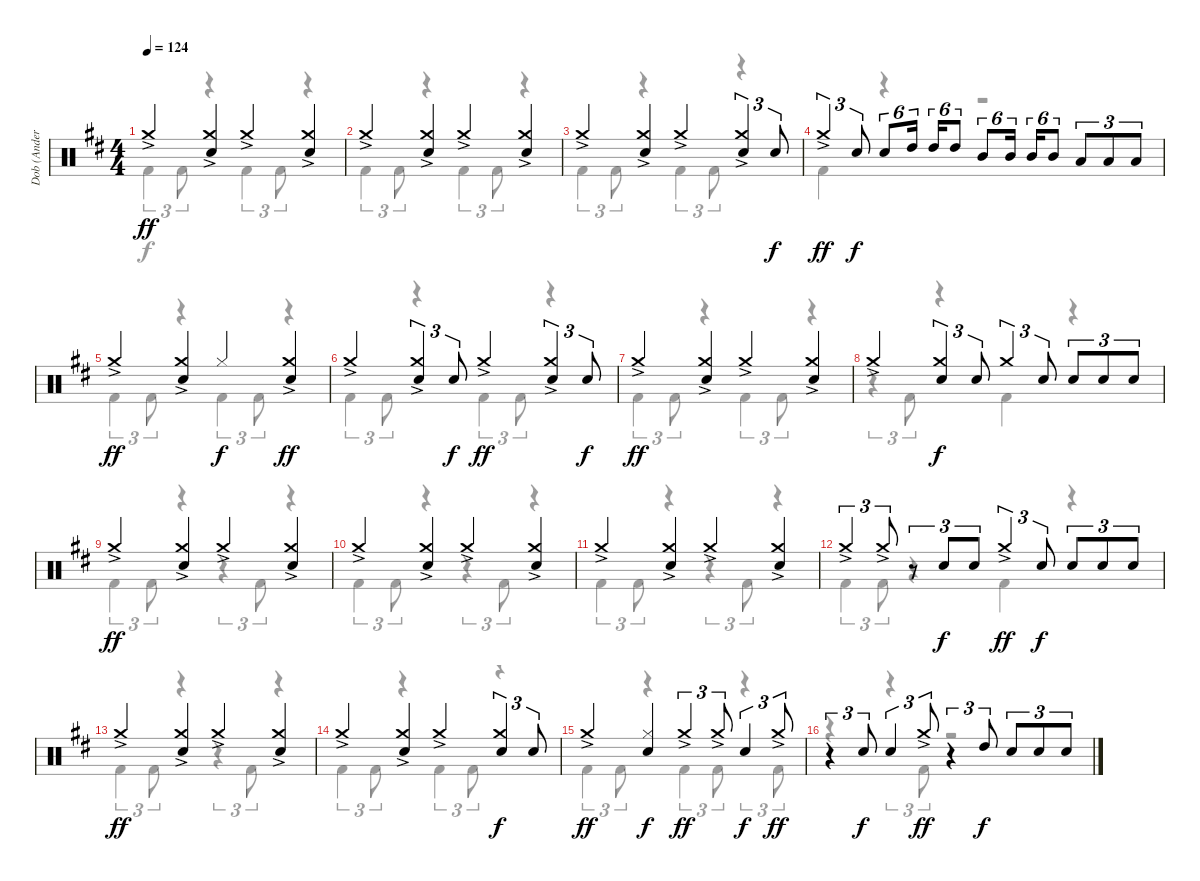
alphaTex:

\track ("Dob (Anders Johansson)" "Dob (Ander") {instrument percussion}
\staff {score}
\articulation defaults
\voice
\ts (4 4)
\tempo 124
\clef neutral
\ks d "Crash medium (hit)"{ac}.4{dy ff}
("Crash medium (hit)"{ac} "Electric Snare (hit)").4 "Crash medium (hit)"{ac}.4 ("Crash medium (hit)"{ac} "Electric Snare (hit)").4 |
"Crash medium (hit)"{ac}.4 ("Crash medium (hit)"{ac} "Electric Snare (hit)").4 "Crash medium (hit)"{ac}.4 ("Crash medium (hit)"{ac} "Electric Snare (hit)").4 |
"Crash medium (hit)"{ac}.4 ("Crash medium (hit)"{ac} "Electric Snare (hit)").4 "Crash medium (hit)"{ac}.4 ("Crash medium (hit)"{ac} "Electric Snare (hit)").4{tu (3 2)} "Electric Snare (hit)".8{tu (3 2) dy f} |
"Crash medium (hit)"{ac}.4{tu (3 2) dy ff} "Electric Snare (hit)".8{tu (3 2) dy f} "Electric Snare (hit)".8{tu (6 4)} "High Tom (hit)".16{tu (6 4)} "High Tom (hit)".16{tu (6 4)} "High Tom (hit)".8{tu (6 4)} "Mid Tom (hit)".8{tu (6 4)} "Mid Tom (hit)".16{tu (6 4)} "Mid Tom (hit)".16{tu (6 4)} "Mid Tom (hit)".8{tu (6 4)} "Low Tom (hit)".8{tu (3 2)} "Low Tom (hit)".8{tu (3 2)} "Low Tom (hit)".8{tu (3 2)} |
"Crash medium (hit)"{ac}.4{dy ff} ("Crash medium (hit)"{ac} "Electric Snare (hit)").4 "Hi-Hat (closed)".4{dy f} ("Crash medium (hit)"{ac} "Electric Snare (hit)").4{dy ff} |
"Crash medium (hit)"{ac}.4 ("Crash medium (hit)"{ac} "Electric Snare (hit)").4{tu (3 2)} "Electric Snare (hit)".8{tu (3 2) dy f} "Crash medium (hit)"{ac}.4{dy ff} ("Crash medium (hit)"{ac} "Electric Snare (hit)").4{tu (3 2)} "Electric Snare (hit)".8{tu (3 2) dy f} |
"Crash medium (hit)"{ac}.4{dy ff} ("Crash medium (hit)"{ac} "Electric Snare (hit)").4 "Crash medium (hit)"{ac}.4 ("Crash medium (hit)"{ac} "Electric Snare (hit)").4 |
"Crash medium (hit)"{ac}.4 ("Crash medium (hit)" "Electric Snare (hit)").4{tu (3 2) dy f} "Electric Snare (hit)".8{tu (3 2)} "Crash medium (hit)".4{tu (3 2)} "Electric Snare (hit)".8{tu (3 2)} "Electric Snare (hit)".8{tu (3 2)} "Electric Snare (hit)".8{tu (3 2)} "Electric Snare (hit)".8{tu (3 2)} |
"Crash medium (hit)"{ac}.4{dy ff} ("Crash medium (hit)"{ac} "Electric Snare (hit)").4 "Crash medium (hit)"{ac}.4 ("Crash medium (hit)"{ac} "Electric Snare (hit)").4 |
"Crash medium (hit)"{ac}.4 ("Crash medium (hit)"{ac} "Electric Snare (hit)").4 "Crash medium (hit)"{ac}.4 ("Crash medium (hit)"{ac} "Electric Snare (hit)").4 |
"Crash medium (hit)"{ac}.4 ("Crash medium (hit)"{ac} "Electric Snare (hit)").4 "Crash medium (hit)"{ac}.4 ("Crash medium (hit)"{ac} "Electric Snare (hit)").4 |
"Crash medium (hit)"{ac}.4{tu (3 2)} "Crash medium (hit)"{ac}.8{tu (3 2)} r.8{tu (3 2)} "Electric Snare (hit)".8{tu (3 2) dy f} "Electric Snare (hit)".8{tu (3 2)} "Crash medium (hit)"{ac}.4{tu (3 2) dy ff} "Electric Snare (hit)".8{tu (3 2) dy f} "Electric Snare (hit)".8{tu (3 2)} "Electric Snare (hit)".8{tu (3 2)} "Electric Snare (hit)".8{tu (3 2)} |
"Crash medium (hit)"{ac}.4{dy ff} ("Crash medium (hit)"{ac} "Electric Snare (hit)").4 "Crash medium (hit)"{ac}.4 ("Crash medium (hit)"{ac} "Electric Snare (hit)").4 |
"Crash medium (hit)"{ac}.4 ("Crash medium (hit)"{ac} "Electric Snare (hit)").4 "Crash medium (hit)"{ac}.4 ("Crash medium (hit)" "Electric Snare (hit)").4{tu (3 2) dy f} "Electric Snare (hit)".8{tu (3 2)} |
"Crash medium (hit)"{ac}.4{dy ff} ("Hi-Hat (closed)" "Electric Snare (hit)").4{dy f} "Crash medium (hit)"{ac}.4{tu (3 2) dy ff} "Crash medium (hit)"{ac}.8{tu (3 2)} "Electric Snare (hit)".4{tu (3 2) dy f} "Crash medium (hit)"{ac}.8{tu (3 2) dy ff} |
r.4{tu (3 2)} "Electric Snare (hit)".8{tu (3 2) dy f} "Electric Snare (hit)".4{tu (3 2)} "Crash medium (hit)"{ac}.8{tu (3 2) dy ff} r.4{tu (3 2)} "High Tom (hit)".8{tu (3 2) dy f} "Electric Snare (hit)".8{tu (3 2)} "Electric Snare (hit)".8{tu (3 2)} "Electric Snare (hit)".8{tu (3 2)}
\voice
\clef neutral
\ottava regular
\simile none
\ks d "Kick (hit) 2".4{tu (3 2) dy f} "Kick (hit) 2".8{tu (3 2)}
r.4 "Kick (hit) 2".4{tu (3 2)} "Kick (hit) 2".8{tu (3 2)} r.4 |
"Kick (hit) 2".4{tu (3 2)} "Kick (hit) 2".8{tu (3 2)} r.4 "Kick (hit) 2".4{tu (3 2)} "Kick (hit) 2".8{tu (3 2)} r.4 |
"Kick (hit) 2".4{tu (3 2)} "Kick (hit) 2".8{tu (3 2)} r.4 "Kick (hit) 2".4{tu (3 2)} "Kick (hit) 2".8{tu (3 2)} r.4 |
"Kick (hit) 2".4 r.4 r.2 |
"Kick (hit) 2".4{tu (3 2)} "Kick (hit) 2".8{tu (3 2)} r.4 "Kick (hit) 2".4{tu (3 2)} "Kick (hit) 2".8{tu (3 2)} r.4 |
"Kick (hit) 2".4{tu (3 2)} "Kick (hit) 2".8{tu (3 2)} r.4 "Kick (hit) 2".4{tu (3 2)} "Kick (hit) 2".8{tu (3 2)} r.4 |
"Kick (hit) 2".4{tu (3 2)} "Kick (hit) 2".8{tu (3 2)} r.4 "Kick (hit) 2".4{tu (3 2)} "Kick (hit) 2".8{tu (3 2)} r.4 |
r.4{tu (3 2)} "Kick (hit) 2".8{tu (3 2)} r.4 "Kick (hit) 2".4 r.4 |
"Kick (hit) 2".4{tu (3 2)} "Kick (hit) 2".8{tu (3 2)} r.4 r.4{tu (3 2)} "Kick (hit) 2".8{tu (3 2)} r.4 |
"Kick (hit) 2".4{tu (3 2)} "Kick (hit) 2".8{tu (3 2)} r.4 r.4{tu (3 2)} "Kick (hit) 2".8{tu (3 2)} r.4 |
"Kick (hit) 2".4{tu (3 2)} "Kick (hit) 2".8{tu (3 2)} r.4 r.4{tu (3 2)} "Kick (hit) 2".8{tu (3 2)} r.4 |
"Kick (hit) 2".4{tu (3 2)} "Kick (hit) 2".8{tu (3 2)} r.4 "Kick (hit) 2".4 r.4 |
"Kick (hit) 2".4{tu (3 2)} "Kick (hit) 2".8{tu (3 2)} r.4 r.4{tu (3 2)} "Kick (hit) 2".8{tu (3 2)} r.4 |
"Kick (hit) 2".4{tu (3 2)} "Kick (hit) 2".8{tu (3 2)} r.4 "Kick (hit) 2".4{tu (3 2)} "Kick (hit) 2".8{tu (3 2)} r.4 |
"Kick (hit) 2".4{tu (3 2)} "Kick (hit) 2".8{tu (3 2)} r.4 "Kick (hit) 2".4{tu (3 2)} "Kick (hit) 2".8{tu (3 2)} r.4{tu (3 2)} "Kick (hit) 2".8{tu (3 2)} |
r.4 r.4{tu (3 2)} "Kick (hit) 2".8{tu (3 2)} r.2
